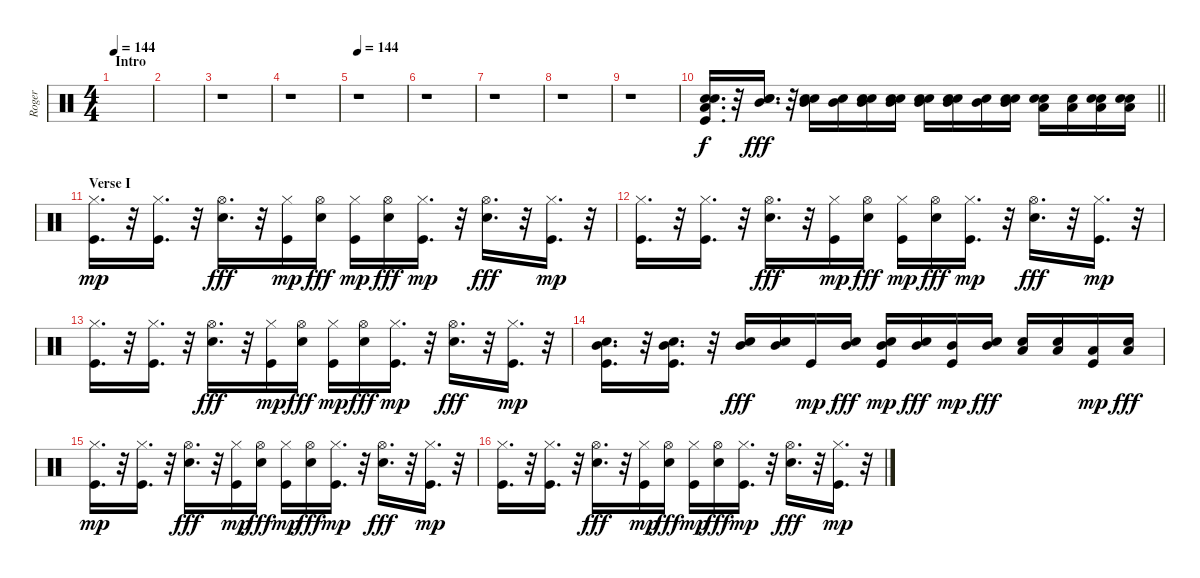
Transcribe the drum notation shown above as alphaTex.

\track ("Roger" "Roger") {instrument percussion}
\staff {score}
\articulation defaults
\ts (4 4)
\section ("" "Intro")
\tempo 144
\tempo 220
\tempo 144
\clef neutral
\ks c
|
|
r.1 |
r.1 |
\tempo 144
r.1 |
r.1 |
r.1 |
r.1 |
r.1 |
\barLineRight lightlight
("Low Tom (hit)" "Snare (hit) 2" "Electric Snare (hit)" "Kick (hit)").16{d} r.32 ("Mid Tom (hit)" "Snare (hit) 2" "Electric Snare (hit)").16{d dy fff} r.32 ("Mid Tom (hit)" "Snare (hit) 2" "Electric Snare (hit)").16 ("Mid Tom (hit)" "Electric Snare (hit)").16 ("Mid Tom (hit)" "Snare (hit) 2" "Electric Snare (hit)").16 ("Mid Tom (hit)" "Snare (hit) 2" "Electric Snare (hit)").16 ("Mid Tom (hit)" "Snare (hit) 2" "Electric Snare (hit)").16 ("Mid Tom (hit)" "Snare (hit) 2" "Electric Snare (hit)").16 ("Mid Tom (hit)" "Electric Snare (hit)").16 ("Mid Tom (hit)" "Snare (hit) 2" "Electric Snare (hit)").16 ("Low Tom (hit)" "Snare (hit) 2" "Electric Snare (hit)").16 ("Low Tom (hit)" "Electric Snare (hit)").16 ("Low Tom (hit)" "Snare (hit) 2" "Electric Snare (hit)").16 ("Low Tom (hit)" "Snare (hit) 2" "Electric Snare (hit)").16 |
\section ("" "Verse I")
("Hi-Hat (closed)" "Kick (hit)").16{d dy mp} r.32 ("Hi-Hat (closed)" "Kick (hit)").16{d} r.32 ("Snare (hit) 2" "Hi-Hat (open)").16{d dy fff} r.32 ("Hi-Hat (closed)" "Kick (hit)").16{dy mp} ("Snare (hit) 2" "Hi-Hat (open)").16{dy fff} ("Hi-Hat (closed)" "Kick (hit)").16{dy mp} ("Snare (hit) 2" "Hi-Hat (open)").16{dy fff} ("Hi-Hat (closed)" "Kick (hit)").16{d dy mp} r.32 ("Snare (hit) 2" "Hi-Hat (open)").16{d dy fff} r.32 ("Hi-Hat (closed)" "Kick (hit)").16{d dy mp} r.32 |
("Hi-Hat (closed)" "Kick (hit)").16{d} r.32 ("Hi-Hat (closed)" "Kick (hit)").16{d} r.32 ("Snare (hit) 2" "Hi-Hat (open)").16{d dy fff} r.32 ("Hi-Hat (closed)" "Kick (hit)").16{dy mp} ("Snare (hit) 2" "Hi-Hat (open)").16{dy fff} ("Hi-Hat (closed)" "Kick (hit)").16{dy mp} ("Snare (hit) 2" "Hi-Hat (open)").16{dy fff} ("Hi-Hat (closed)" "Kick (hit)").16{d dy mp} r.32 ("Snare (hit) 2" "Hi-Hat (open)").16{d dy fff} r.32 ("Hi-Hat (closed)" "Kick (hit)").16{d dy mp} r.32 |
("Hi-Hat (closed)" "Kick (hit)").16{d} r.32 ("Hi-Hat (closed)" "Kick (hit)").16{d} r.32 ("Snare (hit) 2" "Hi-Hat (open)").16{d dy fff} r.32 ("Hi-Hat (closed)" "Kick (hit)").16{dy mp} ("Snare (hit) 2" "Hi-Hat (open)").16{dy fff} ("Hi-Hat (closed)" "Kick (hit)").16{dy mp} ("Snare (hit) 2" "Hi-Hat (open)").16{dy fff} ("Hi-Hat (closed)" "Kick (hit)").16{d dy mp} r.32 ("Snare (hit) 2" "Hi-Hat (open)").16{d dy fff} r.32 ("Hi-Hat (closed)" "Kick (hit)").16{d dy mp} r.32 |
("Mid Tom (hit)" "Snare (hit) 2" "Kick (hit)").16{d} r.32 ("Mid Tom (hit)" "Snare (hit) 2" "Kick (hit)").16{d} r.32 ("Mid Tom (hit)" "Snare (hit) 2").16{dy fff} ("Mid Tom (hit)" "Snare (hit) 2").16 "Kick (hit)".16{dy mp} ("Mid Tom (hit)" "Snare (hit) 2").16{dy fff} ("Mid Tom (hit)" "Snare (hit) 2" "Kick (hit)").16{dy mp} ("Mid Tom (hit)" "Snare (hit) 2").16{dy fff} ("Mid Tom (hit)" "Kick (hit)").16{dy mp} ("Mid Tom (hit)" "Snare (hit) 2").16{dy fff} ("Low Tom (hit)" "Snare (hit) 2").16 ("Low Tom (hit)" "Snare (hit) 2").16 ("Low Tom (hit)" "Kick (hit)").16{dy mp} ("Low Tom (hit)" "Snare (hit) 2").16{dy fff} |
("Hi-Hat (closed)" "Kick (hit)").16{d dy mp} r.32 ("Hi-Hat (closed)" "Kick (hit)").16{d} r.32 ("Snare (hit) 2" "Hi-Hat (open)").16{d dy fff} r.32 ("Hi-Hat (closed)" "Kick (hit)").16{dy mp} ("Snare (hit) 2" "Hi-Hat (open)").16{dy fff} ("Hi-Hat (closed)" "Kick (hit)").16{dy mp} ("Snare (hit) 2" "Hi-Hat (open)").16{dy fff} ("Hi-Hat (closed)" "Kick (hit)").16{d dy mp} r.32 ("Snare (hit) 2" "Hi-Hat (open)").16{d dy fff} r.32 ("Hi-Hat (closed)" "Kick (hit)").16{d dy mp} r.32 |
("Hi-Hat (closed)" "Kick (hit)").16{d} r.32 ("Hi-Hat (closed)" "Kick (hit)").16{d} r.32 ("Snare (hit) 2" "Hi-Hat (open)").16{d dy fff} r.32 ("Hi-Hat (closed)" "Kick (hit)").16{dy mp} ("Snare (hit) 2" "Hi-Hat (open)").16{dy fff} ("Hi-Hat (closed)" "Kick (hit)").16{dy mp} ("Snare (hit) 2" "Hi-Hat (open)").16{dy fff} ("Hi-Hat (closed)" "Kick (hit)").16{d dy mp} r.32 ("Snare (hit) 2" "Hi-Hat (open)").16{d dy fff} r.32 ("Hi-Hat (closed)" "Kick (hit)").16{d dy mp} r.32
